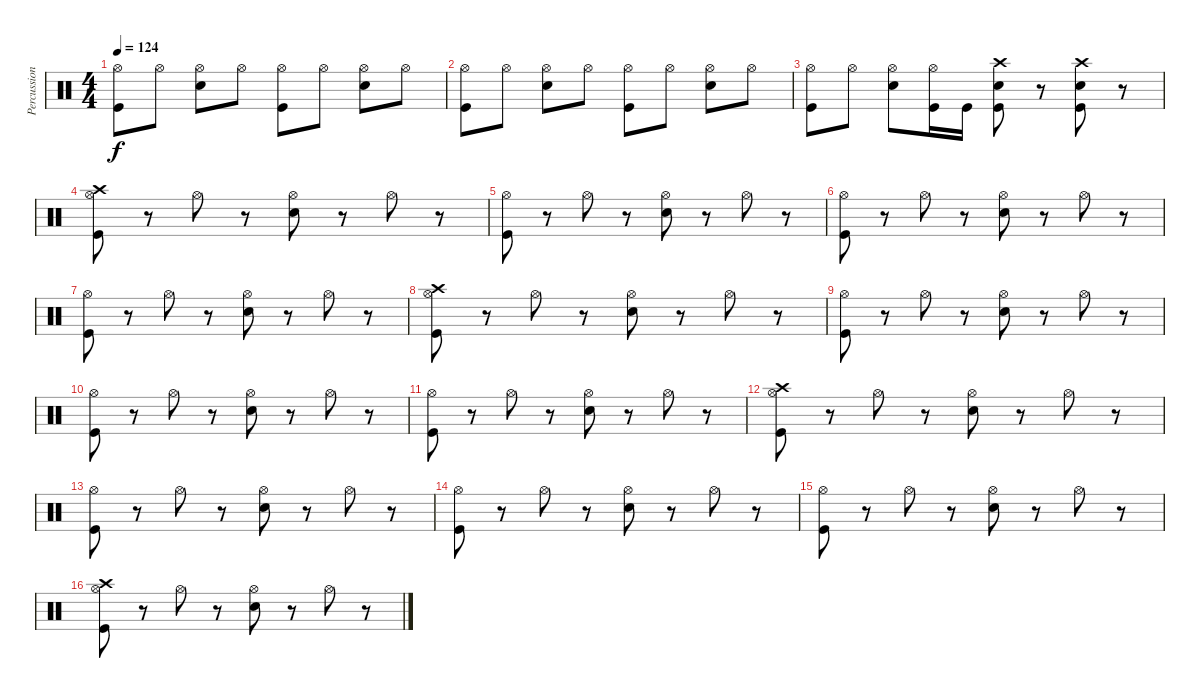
\track ("Percussions" "Percussion") {instrument percussion}
\staff {score}
\articulation defaults
\ts (4 4)
\tempo 124
\clef neutral
\ks c
("Hi-Hat (open)" "Kick (hit)").8{dy f} "Hi-Hat (open)".8 ("Hi-Hat (open)" "Electric Snare (hit)").8 "Hi-Hat (open)".8 ("Hi-Hat (open)" "Kick (hit)").8 "Hi-Hat (open)".8 ("Hi-Hat (open)" "Electric Snare (hit)").8 "Hi-Hat (open)".8 |
("Hi-Hat (open)" "Kick (hit)").8 "Hi-Hat (open)".8 ("Hi-Hat (open)" "Electric Snare (hit)").8 "Hi-Hat (open)".8 ("Hi-Hat (open)" "Kick (hit)").8 "Hi-Hat (open)".8 ("Hi-Hat (open)" "Electric Snare (hit)").8 "Hi-Hat (open)".8 |
("Hi-Hat (open)" "Kick (hit)").8 "Hi-Hat (open)".8 ("Hi-Hat (open)" "Electric Snare (hit)").8 ("Hi-Hat (open)" "Kick (hit)").16 "Kick (hit)".16 ("Crash high (hit)" "Kick (hit)" "Electric Snare (hit)").8 r.8 ("Crash high (hit)" "Kick (hit)" "Electric Snare (hit)").8 r.8 |
("Hi-Hat (open)" "Kick (hit)" "Crash high (hit)").8 r.8 "Hi-Hat (open)".8 r.8 ("Hi-Hat (open)" "Electric Snare (hit)").8 r.8 "Hi-Hat (open)".8 r.8 |
("Hi-Hat (open)" "Kick (hit)").8 r.8 "Hi-Hat (open)".8 r.8 ("Hi-Hat (open)" "Electric Snare (hit)").8 r.8 "Hi-Hat (open)".8 r.8 |
("Hi-Hat (open)" "Kick (hit)").8 r.8 "Hi-Hat (open)".8 r.8 ("Hi-Hat (open)" "Electric Snare (hit)").8 r.8 "Hi-Hat (open)".8 r.8 |
("Hi-Hat (open)" "Kick (hit)").8 r.8 "Hi-Hat (open)".8 r.8 ("Hi-Hat (open)" "Electric Snare (hit)").8 r.8 "Hi-Hat (open)".8 r.8 |
("Hi-Hat (open)" "Kick (hit)" "Crash high (hit)").8 r.8 "Hi-Hat (open)".8 r.8 ("Hi-Hat (open)" "Electric Snare (hit)").8 r.8 "Hi-Hat (open)".8 r.8 |
("Hi-Hat (open)" "Kick (hit)").8 r.8 "Hi-Hat (open)".8 r.8 ("Hi-Hat (open)" "Electric Snare (hit)").8 r.8 "Hi-Hat (open)".8 r.8 |
("Hi-Hat (open)" "Kick (hit)").8 r.8 "Hi-Hat (open)".8 r.8 ("Hi-Hat (open)" "Electric Snare (hit)").8 r.8 "Hi-Hat (open)".8 r.8 |
("Hi-Hat (open)" "Kick (hit)").8 r.8 "Hi-Hat (open)".8 r.8 ("Hi-Hat (open)" "Electric Snare (hit)").8 r.8 "Hi-Hat (open)".8 r.8 |
("Hi-Hat (open)" "Kick (hit)" "Crash high (hit)").8 r.8 "Hi-Hat (open)".8 r.8 ("Hi-Hat (open)" "Electric Snare (hit)").8 r.8 "Hi-Hat (open)".8 r.8 |
("Hi-Hat (open)" "Kick (hit)").8 r.8 "Hi-Hat (open)".8 r.8 ("Hi-Hat (open)" "Electric Snare (hit)").8 r.8 "Hi-Hat (open)".8 r.8 |
("Hi-Hat (open)" "Kick (hit)").8 r.8 "Hi-Hat (open)".8 r.8 ("Hi-Hat (open)" "Electric Snare (hit)").8 r.8 "Hi-Hat (open)".8 r.8 |
("Hi-Hat (open)" "Kick (hit)").8 r.8 "Hi-Hat (open)".8 r.8 ("Hi-Hat (open)" "Electric Snare (hit)").8 r.8 "Hi-Hat (open)".8 r.8 |
("Hi-Hat (open)" "Kick (hit)" "Crash high (hit)").8 r.8 "Hi-Hat (open)".8 r.8 ("Hi-Hat (open)" "Electric Snare (hit)").8 r.8 "Hi-Hat (open)".8 r.8
